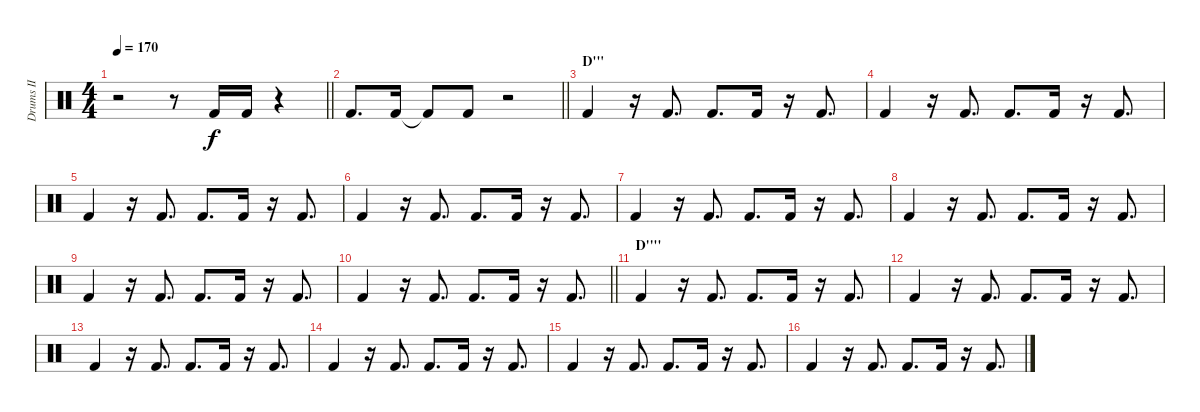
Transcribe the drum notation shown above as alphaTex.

\track ("Drums II" "Drums II") {instrument percussion}
\staff {score}
\articulation defaults
\ts (4 4)
\tempo 170
\clef neutral
\barLineRight lightlight
\ks c
r.2{dy f} r.8 "Kick (hit) 2".16 "Kick (hit) 2".16 r.4 |
\barLineRight lightlight "Kick (hit) 2".8{d} "Kick (hit) 2".16 "Kick (hit) 2"{t}.8 "Kick (hit) 2".8
r.2 |
\section ("" "D'''")
"Kick (hit) 2".4 r.16 "Kick (hit) 2".8{d} "Kick (hit) 2".8{d} "Kick (hit) 2".16 r.16 "Kick (hit) 2".8{d} |
"Kick (hit) 2".4 r.16 "Kick (hit) 2".8{d} "Kick (hit) 2".8{d} "Kick (hit) 2".16 r.16 "Kick (hit) 2".8{d} |
"Kick (hit) 2".4 r.16 "Kick (hit) 2".8{d} "Kick (hit) 2".8{d} "Kick (hit) 2".16 r.16 "Kick (hit) 2".8{d} |
"Kick (hit) 2".4 r.16 "Kick (hit) 2".8{d} "Kick (hit) 2".8{d} "Kick (hit) 2".16 r.16 "Kick (hit) 2".8{d} |
"Kick (hit) 2".4 r.16 "Kick (hit) 2".8{d} "Kick (hit) 2".8{d} "Kick (hit) 2".16 r.16 "Kick (hit) 2".8{d} |
"Kick (hit) 2".4 r.16 "Kick (hit) 2".8{d} "Kick (hit) 2".8{d} "Kick (hit) 2".16 r.16 "Kick (hit) 2".8{d} |
"Kick (hit) 2".4 r.16 "Kick (hit) 2".8{d} "Kick (hit) 2".8{d} "Kick (hit) 2".16 r.16 "Kick (hit) 2".8{d} |
\barLineRight lightlight "Kick (hit) 2".4
r.16 "Kick (hit) 2".8{d} "Kick (hit) 2".8{d} "Kick (hit) 2".16 r.16 "Kick (hit) 2".8{d} |
\section ("" "D''''")
"Kick (hit) 2".4 r.16 "Kick (hit) 2".8{d} "Kick (hit) 2".8{d} "Kick (hit) 2".16 r.16 "Kick (hit) 2".8{d} |
"Kick (hit) 2".4 r.16 "Kick (hit) 2".8{d} "Kick (hit) 2".8{d} "Kick (hit) 2".16 r.16 "Kick (hit) 2".8{d} |
"Kick (hit) 2".4 r.16 "Kick (hit) 2".8{d} "Kick (hit) 2".8{d} "Kick (hit) 2".16 r.16 "Kick (hit) 2".8{d} |
"Kick (hit) 2".4 r.16 "Kick (hit) 2".8{d} "Kick (hit) 2".8{d} "Kick (hit) 2".16 r.16 "Kick (hit) 2".8{d} |
"Kick (hit) 2".4 r.16 "Kick (hit) 2".8{d} "Kick (hit) 2".8{d} "Kick (hit) 2".16 r.16 "Kick (hit) 2".8{d} |
"Kick (hit) 2".4 r.16 "Kick (hit) 2".8{d} "Kick (hit) 2".8{d} "Kick (hit) 2".16 r.16 "Kick (hit) 2".8{d}
